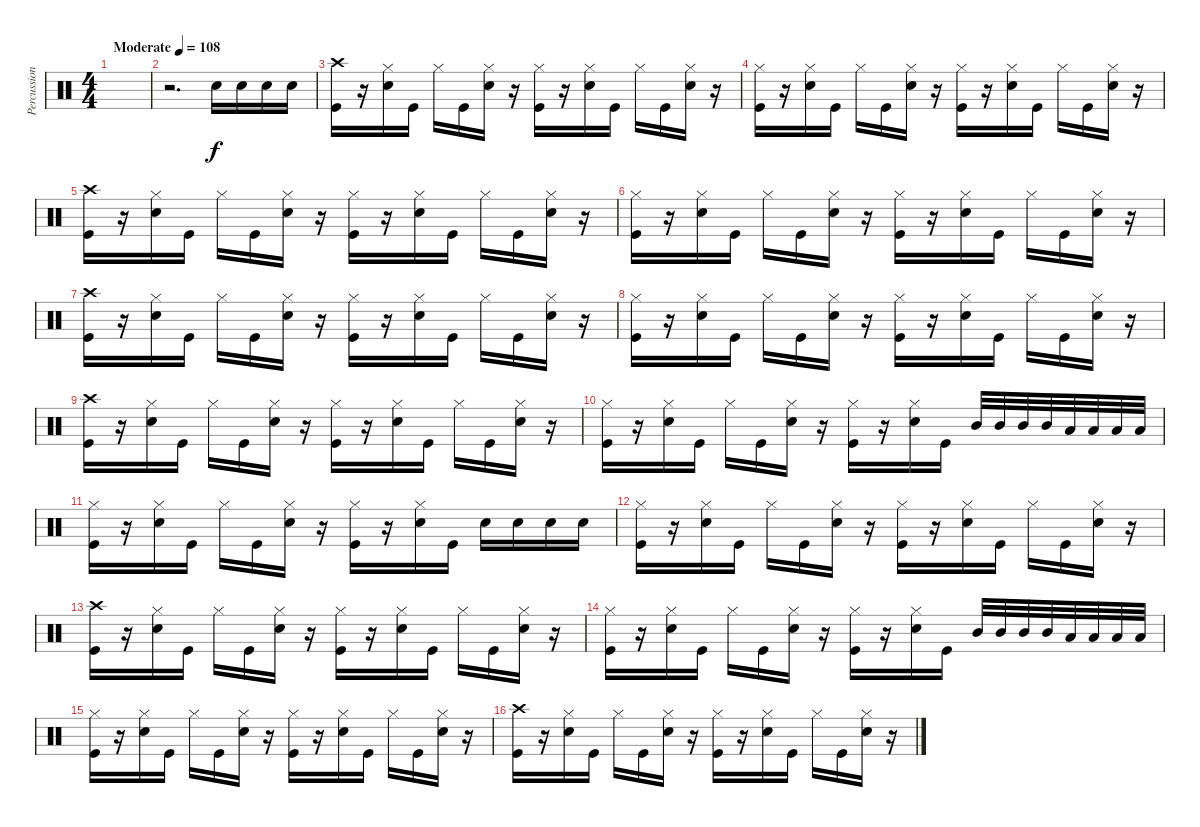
\track ("Percussion" "Percussion") {instrument percussion}
\staff {score}
\articulation defaults
\ts (4 4)
\tempo (108 "Moderate")
\clef neutral
\ks c
|
r.2{d} "Snare (hit) 2".16 "Snare (hit) 2".16 "Snare (hit) 2".16 "Snare (hit) 2".16 |
("Kick (hit)" "Crash high (hit)").16 r.16 ("Snare (hit) 2" "Hi-Hat (closed)").16 "Kick (hit)".16 "Hi-Hat (closed)".16 "Kick (hit)".16 ("Snare (hit) 2" "Hi-Hat (closed)").16 r.16 ("Kick (hit)" "Hi-Hat (closed)").16 r.16 ("Snare (hit) 2" "Hi-Hat (closed)").16 "Kick (hit)".16 "Hi-Hat (closed)".16 "Kick (hit)".16 ("Snare (hit) 2" "Hi-Hat (closed)").16 r.16 |
("Hi-Hat (closed)" "Kick (hit)").16 r.16 ("Snare (hit) 2" "Hi-Hat (closed)").16 "Kick (hit)".16 "Hi-Hat (closed)".16 "Kick (hit)".16 ("Snare (hit) 2" "Hi-Hat (closed)").16 r.16 ("Kick (hit)" "Hi-Hat (closed)").16 r.16 ("Snare (hit) 2" "Hi-Hat (closed)").16 "Kick (hit)".16 "Hi-Hat (closed)".16 "Kick (hit)".16 ("Snare (hit) 2" "Hi-Hat (closed)").16 r.16 |
("Kick (hit)" "Crash high (hit)").16 r.16 ("Snare (hit) 2" "Hi-Hat (closed)").16 "Kick (hit)".16 "Hi-Hat (closed)".16 "Kick (hit)".16 ("Snare (hit) 2" "Hi-Hat (closed)").16 r.16 ("Kick (hit)" "Hi-Hat (closed)").16 r.16 ("Snare (hit) 2" "Hi-Hat (closed)").16 "Kick (hit)".16 "Hi-Hat (closed)".16 "Kick (hit)".16 ("Snare (hit) 2" "Hi-Hat (closed)").16 r.16 |
("Hi-Hat (closed)" "Kick (hit)").16 r.16 ("Snare (hit) 2" "Hi-Hat (closed)").16 "Kick (hit)".16 "Hi-Hat (closed)".16 "Kick (hit)".16 ("Snare (hit) 2" "Hi-Hat (closed)").16 r.16 ("Kick (hit)" "Hi-Hat (closed)").16 r.16 ("Snare (hit) 2" "Hi-Hat (closed)").16 "Kick (hit)".16 "Hi-Hat (closed)".16 "Kick (hit)".16 ("Snare (hit) 2" "Hi-Hat (closed)").16 r.16 |
("Kick (hit)" "Crash high (hit)").16 r.16 ("Snare (hit) 2" "Hi-Hat (closed)").16 "Kick (hit)".16 "Hi-Hat (closed)".16 "Kick (hit)".16 ("Snare (hit) 2" "Hi-Hat (closed)").16 r.16 ("Kick (hit)" "Hi-Hat (closed)").16 r.16 ("Snare (hit) 2" "Hi-Hat (closed)").16 "Kick (hit)".16 "Hi-Hat (closed)".16 "Kick (hit)".16 ("Snare (hit) 2" "Hi-Hat (closed)").16 r.16 |
("Hi-Hat (closed)" "Kick (hit)").16 r.16 ("Snare (hit) 2" "Hi-Hat (closed)").16 "Kick (hit)".16 "Hi-Hat (closed)".16 "Kick (hit)".16 ("Snare (hit) 2" "Hi-Hat (closed)").16 r.16 ("Kick (hit)" "Hi-Hat (closed)").16 r.16 ("Snare (hit) 2" "Hi-Hat (closed)").16 "Kick (hit)".16 "Hi-Hat (closed)".16 "Kick (hit)".16 ("Snare (hit) 2" "Hi-Hat (closed)").16 r.16 |
("Kick (hit)" "Crash high (hit)").16 r.16 ("Snare (hit) 2" "Hi-Hat (closed)").16 "Kick (hit)".16 "Hi-Hat (closed)".16 "Kick (hit)".16 ("Snare (hit) 2" "Hi-Hat (closed)").16 r.16 ("Kick (hit)" "Hi-Hat (closed)").16 r.16 ("Snare (hit) 2" "Hi-Hat (closed)").16 "Kick (hit)".16 "Hi-Hat (closed)".16 "Kick (hit)".16 ("Snare (hit) 2" "Hi-Hat (closed)").16 r.16 |
("Hi-Hat (closed)" "Kick (hit)").16 r.16 ("Snare (hit) 2" "Hi-Hat (closed)").16 "Kick (hit)".16 "Hi-Hat (closed)".16 "Kick (hit)".16 ("Snare (hit) 2" "Hi-Hat (closed)").16 r.16 ("Kick (hit)" "Hi-Hat (closed)").16 r.16 ("Snare (hit) 2" "Hi-Hat (closed)").16 "Kick (hit)".16 "Mid Tom (hit)".32 "Mid Tom (hit)".32 "Mid Tom (hit)".32 "Mid Tom (hit)".32 "Low Tom (hit)".32 "Low Tom (hit)".32 "Low Tom (hit)".32 "Low Tom (hit)".32 |
("Hi-Hat (closed)" "Kick (hit)").16 r.16 ("Snare (hit) 2" "Hi-Hat (closed)").16 "Kick (hit)".16 "Hi-Hat (closed)".16 "Kick (hit)".16 ("Snare (hit) 2" "Hi-Hat (closed)").16 r.16 ("Kick (hit)" "Hi-Hat (closed)").16 r.16 ("Snare (hit) 2" "Hi-Hat (closed)").16 "Kick (hit)".16 "Snare (hit) 2".16 "Snare (hit) 2".16 "Snare (hit) 2".16 "Snare (hit) 2".16 |
("Hi-Hat (closed)" "Kick (hit)").16 r.16 ("Snare (hit) 2" "Hi-Hat (closed)").16 "Kick (hit)".16 "Hi-Hat (closed)".16 "Kick (hit)".16 ("Snare (hit) 2" "Hi-Hat (closed)").16 r.16 ("Kick (hit)" "Hi-Hat (closed)").16 r.16 ("Snare (hit) 2" "Hi-Hat (closed)").16 "Kick (hit)".16 "Hi-Hat (closed)".16 "Kick (hit)".16 ("Snare (hit) 2" "Hi-Hat (closed)").16 r.16 |
("Kick (hit)" "Crash high (hit)").16 r.16 ("Snare (hit) 2" "Hi-Hat (closed)").16 "Kick (hit)".16 "Hi-Hat (closed)".16 "Kick (hit)".16 ("Snare (hit) 2" "Hi-Hat (closed)").16 r.16 ("Kick (hit)" "Hi-Hat (closed)").16 r.16 ("Snare (hit) 2" "Hi-Hat (closed)").16 "Kick (hit)".16 "Hi-Hat (closed)".16 "Kick (hit)".16 ("Snare (hit) 2" "Hi-Hat (closed)").16 r.16 |
("Hi-Hat (closed)" "Kick (hit)").16 r.16 ("Snare (hit) 2" "Hi-Hat (closed)").16 "Kick (hit)".16 "Hi-Hat (closed)".16 "Kick (hit)".16 ("Snare (hit) 2" "Hi-Hat (closed)").16 r.16 ("Kick (hit)" "Hi-Hat (closed)").16 r.16 ("Snare (hit) 2" "Hi-Hat (closed)").16 "Kick (hit)".16 "Mid Tom (hit)".32 "Mid Tom (hit)".32 "Mid Tom (hit)".32 "Mid Tom (hit)".32 "Low Tom (hit)".32 "Low Tom (hit)".32 "Low Tom (hit)".32 "Low Tom (hit)".32 |
("Hi-Hat (closed)" "Kick (hit)").16 r.16 ("Snare (hit) 2" "Hi-Hat (closed)").16 "Kick (hit)".16 "Hi-Hat (closed)".16 "Kick (hit)".16 ("Snare (hit) 2" "Hi-Hat (closed)").16 r.16 ("Kick (hit)" "Hi-Hat (closed)").16 r.16 ("Snare (hit) 2" "Hi-Hat (closed)").16 "Kick (hit)".16 "Hi-Hat (closed)".16 "Kick (hit)".16 ("Snare (hit) 2" "Hi-Hat (closed)").16 r.16 |
("Kick (hit)" "Crash high (hit)").16 r.16 ("Snare (hit) 2" "Hi-Hat (closed)").16 "Kick (hit)".16 "Hi-Hat (closed)".16 "Kick (hit)".16 ("Snare (hit) 2" "Hi-Hat (closed)").16 r.16 ("Kick (hit)" "Hi-Hat (closed)").16 r.16 ("Snare (hit) 2" "Hi-Hat (closed)").16 "Kick (hit)".16 "Hi-Hat (closed)".16 "Kick (hit)".16 ("Snare (hit) 2" "Hi-Hat (closed)").16 r.16
